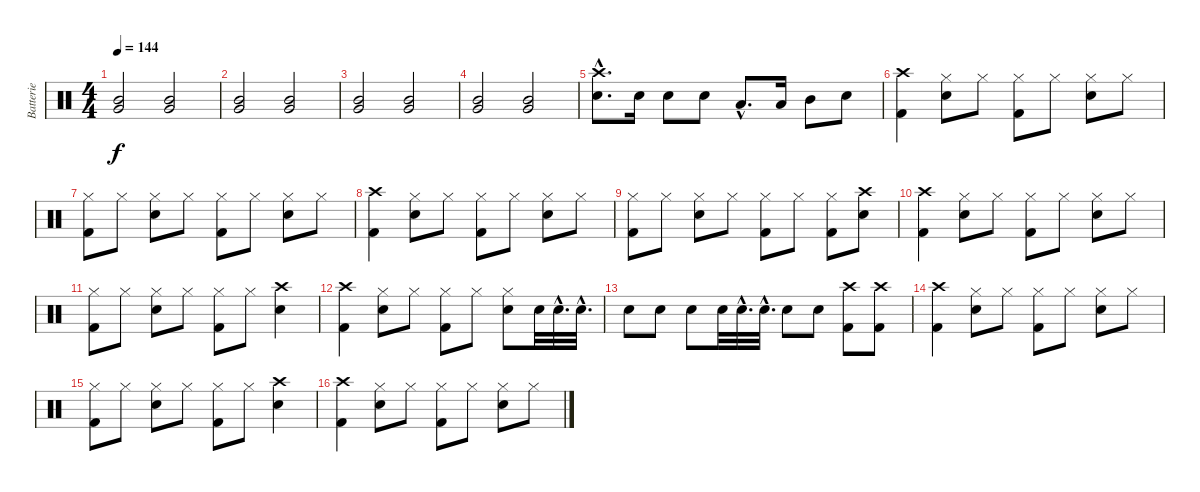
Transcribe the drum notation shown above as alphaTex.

\track ("Batterie" "Batterie") {instrument percussion}
\staff {score}
\articulation defaults
\ts (4 4)
\tempo 144
\clef neutral
\ks c
("Very Low Tom (hit)" "Mid Tom (hit)").2{dy f} ("Very Low Tom (hit)" "Mid Tom (hit)").2 |
("Very Low Tom (hit)" "Mid Tom (hit)").2 ("Very Low Tom (hit)" "Mid Tom (hit)").2 |
("Very Low Tom (hit)" "Mid Tom (hit)").2 ("Very Low Tom (hit)" "Mid Tom (hit)").2 |
("Very Low Tom (hit)" "Mid Tom (hit)").2 ("Very Low Tom (hit)" "Mid Tom (hit)").2 |
("Crash high (hit)"{hac} "Snare (hit) 2"{hac}).8{d} "Snare (hit) 2".16 "Snare (hit) 2".8 "Snare (hit) 2".8 "Low Tom (hit)"{hac}.8{d} "Low Tom (hit)".16 "Mid Tom (hit)".8 "Snare (hit) 2".8 |
("Crash high (hit)" "Kick (hit) 2").4 ("Hi-Hat (closed)" "Snare (hit) 2").8 "Hi-Hat (closed)".8 ("Hi-Hat (closed)" "Kick (hit) 2").8 "Hi-Hat (closed)".8 ("Hi-Hat (closed)" "Snare (hit) 2").8 "Hi-Hat (closed)".8 |
("Hi-Hat (closed)" "Kick (hit) 2").8 "Hi-Hat (closed)".8 ("Hi-Hat (closed)" "Snare (hit) 2").8 "Hi-Hat (closed)".8 ("Hi-Hat (closed)" "Kick (hit) 2").8 "Hi-Hat (closed)".8 ("Hi-Hat (closed)" "Snare (hit) 2").8 "Hi-Hat (closed)".8 |
("Crash high (hit)" "Kick (hit) 2").4 ("Hi-Hat (closed)" "Snare (hit) 2").8 "Hi-Hat (closed)".8 ("Hi-Hat (closed)" "Kick (hit) 2").8 "Hi-Hat (closed)".8 ("Hi-Hat (closed)" "Snare (hit) 2").8 "Hi-Hat (closed)".8 |
("Hi-Hat (closed)" "Kick (hit) 2").8 "Hi-Hat (closed)".8 ("Hi-Hat (closed)" "Snare (hit) 2").8 "Hi-Hat (closed)".8 ("Hi-Hat (closed)" "Kick (hit) 2").8 "Hi-Hat (closed)".8 ("Hi-Hat (closed)" "Kick (hit) 2").8 ("Crash high (hit)" "Snare (hit) 2").8 |
("Crash high (hit)" "Kick (hit) 2").4 ("Hi-Hat (closed)" "Snare (hit) 2").8 "Hi-Hat (closed)".8 ("Hi-Hat (closed)" "Kick (hit) 2").8 "Hi-Hat (closed)".8 ("Hi-Hat (closed)" "Snare (hit) 2").8 "Hi-Hat (closed)".8 |
("Hi-Hat (closed)" "Kick (hit) 2").8 "Hi-Hat (closed)".8 ("Hi-Hat (closed)" "Snare (hit) 2").8 "Hi-Hat (closed)".8 ("Hi-Hat (closed)" "Kick (hit) 2").8 "Hi-Hat (closed)".8 ("Crash high (hit)" "Snare (hit) 2").4 |
("Crash high (hit)" "Kick (hit) 2").4 ("Hi-Hat (closed)" "Snare (hit) 2").8 "Hi-Hat (closed)".8 ("Hi-Hat (closed)" "Kick (hit) 2").8 "Hi-Hat (closed)".8 ("Hi-Hat (closed)" "Snare (hit) 2").8 "Snare (hit) 2".32 "Snare (hit) 2"{hac}.32{d} "Snare (hit) 2"{hac}.32{d} |
"Snare (hit) 2".8 "Snare (hit) 2".8 "Snare (hit) 2".8 "Snare (hit) 2".32 "Snare (hit) 2"{hac}.32{d} "Snare (hit) 2"{hac}.32{d} "Snare (hit) 2".8 "Snare (hit) 2".8 ("Crash high (hit)" "Kick (hit) 2").8 ("Crash high (hit)" "Kick (hit) 2").8 |
("Crash high (hit)" "Kick (hit) 2").4 ("Hi-Hat (closed)" "Snare (hit) 2").8 "Hi-Hat (closed)".8 ("Hi-Hat (closed)" "Kick (hit) 2").8 "Hi-Hat (closed)".8 ("Hi-Hat (closed)" "Snare (hit) 2").8 "Hi-Hat (closed)".8 |
("Hi-Hat (closed)" "Kick (hit) 2").8 "Hi-Hat (closed)".8 ("Hi-Hat (closed)" "Snare (hit) 2").8 "Hi-Hat (closed)".8 ("Hi-Hat (closed)" "Kick (hit) 2").8 "Hi-Hat (closed)".8 ("Crash high (hit)" "Snare (hit) 2").4 |
("Crash high (hit)" "Kick (hit) 2").4 ("Hi-Hat (closed)" "Snare (hit) 2").8 "Hi-Hat (closed)".8 ("Hi-Hat (closed)" "Kick (hit) 2").8 "Hi-Hat (closed)".8 ("Hi-Hat (closed)" "Snare (hit) 2").8 "Hi-Hat (closed)".8
